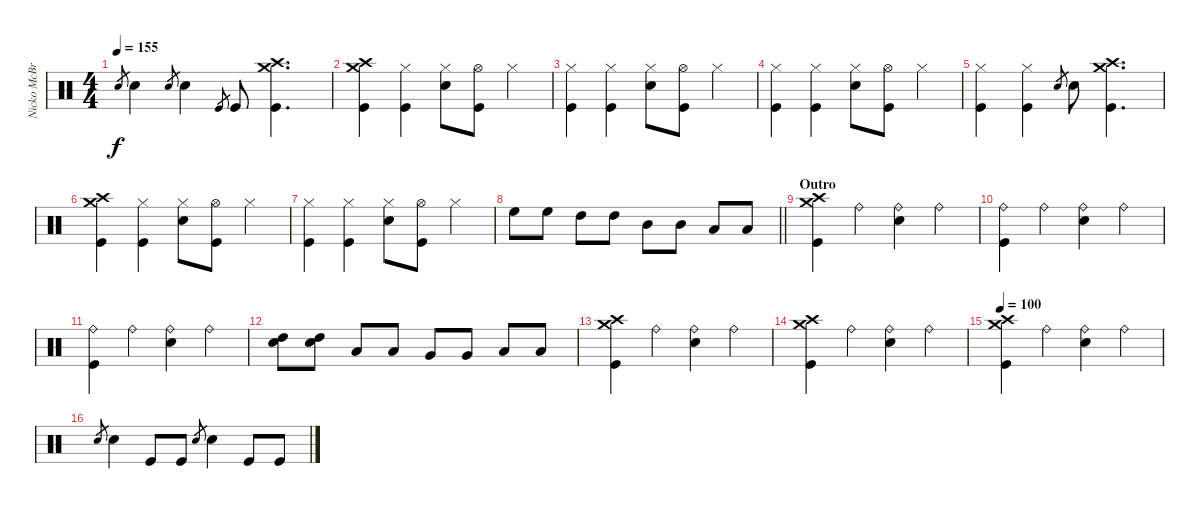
\track ("Nicko McBrain" "Nicko McBr") {instrument percussion}
\staff {score}
\articulation defaults
\ts (4 4)
\tempo 155
\clef neutral
\ks c "Snare (hit) 2".8{gr dy f} "Snare (hit) 2".4 "Snare (hit) 2".8{gr} "Snare (hit) 2".4 "Kick (hit)".8{gr} "Kick (hit)".8
("Crash medium (hit)" "Crash high (hit)" "Kick (hit)").4{d} |
("Crash medium (hit)" "Crash high (hit)" "Kick (hit)").4 ("Hi-Hat (closed)" "Kick (hit)").4 ("Hi-Hat (closed)" "Snare (hit) 2").8 ("Hi-Hat (open)" "Kick (hit)").8 "Hi-Hat (closed)".4 |
("Hi-Hat (closed)" "Kick (hit)").4 ("Hi-Hat (closed)" "Kick (hit)").4 ("Hi-Hat (closed)" "Snare (hit) 2").8 ("Hi-Hat (open)" "Kick (hit)").8 "Hi-Hat (closed)".4 |
("Hi-Hat (closed)" "Kick (hit)").4 ("Hi-Hat (closed)" "Kick (hit)").4 ("Hi-Hat (closed)" "Snare (hit) 2").8 ("Hi-Hat (open)" "Kick (hit)").8 "Hi-Hat (closed)".4 |
("Hi-Hat (closed)" "Kick (hit)").4 ("Hi-Hat (closed)" "Kick (hit)").4 "Snare (hit) 2".8{gr} "Snare (hit) 2".8 ("Crash medium (hit)" "Crash high (hit)" "Kick (hit)").4{d} |
("Crash medium (hit)" "Crash high (hit)" "Kick (hit)").4 ("Hi-Hat (closed)" "Kick (hit)").4 ("Hi-Hat (closed)" "Snare (hit) 2").8 ("Hi-Hat (open)" "Kick (hit)").8 "Hi-Hat (closed)".4 |
("Hi-Hat (closed)" "Kick (hit)").4 ("Hi-Hat (closed)" "Kick (hit)").4 ("Hi-Hat (closed)" "Snare (hit) 2").8 ("Hi-Hat (open)" "Kick (hit)").8 "Hi-Hat (closed)".4 |
\barLineRight lightlight "High Floor Tom (hit)".8 "High Floor Tom (hit)".8 "High Tom (hit)".8 "High Tom (hit)".8 "Mid Tom (hit)".8 "Mid Tom (hit)".8 "Low Tom (hit)".8 "Low Tom (hit)".8
|
\section ("" "Outro")
("Crash medium (hit)" "Crash high (hit)" "Kick (hit)").4 "Ride (bell)".4 ("Ride (bell)" "Snare (hit) 2").4 "Ride (bell)".4 |
("Ride (bell)" "Kick (hit)").4 "Ride (bell)".4 ("Ride (bell)" "Snare (hit) 2").4 "Ride (bell)".4 |
("Ride (bell)" "Kick (hit)").4 "Ride (bell)".4 ("Ride (bell)" "Snare (hit) 2").4 "Ride (bell)".4 |
("High Tom (hit)" "Snare (hit) 2").8 ("High Tom (hit)" "Snare (hit) 2").8 "Low Tom (hit)".8 "Low Tom (hit)".8 "Very Low Tom (hit)".8 "Very Low Tom (hit)".8 "Low Floor Tom (hit)".8 "Low Floor Tom (hit)".8 |
("Crash medium (hit)" "Crash high (hit)" "Kick (hit)").4 "Ride (bell)".4 ("Ride (bell)" "Snare (hit) 2").4 "Ride (bell)".4 |
("Crash medium (hit)" "Crash high (hit)" "Kick (hit)").4 "Ride (bell)".4 ("Ride (bell)" "Snare (hit) 2").4 "Ride (bell)".4 |
\tempo 100
("Crash medium (hit)" "Crash high (hit)" "Kick (hit)").4 "Ride (bell)".4 ("Ride (bell)" "Snare (hit) 2").4 "Ride (bell)".4 |
"Snare (hit) 2".8{gr} "Snare (hit) 2".4 "Kick (hit)".8 "Kick (hit)".8 "Snare (hit) 2".8{gr} "Snare (hit) 2".4 "Kick (hit)".8 "Kick (hit)".8
